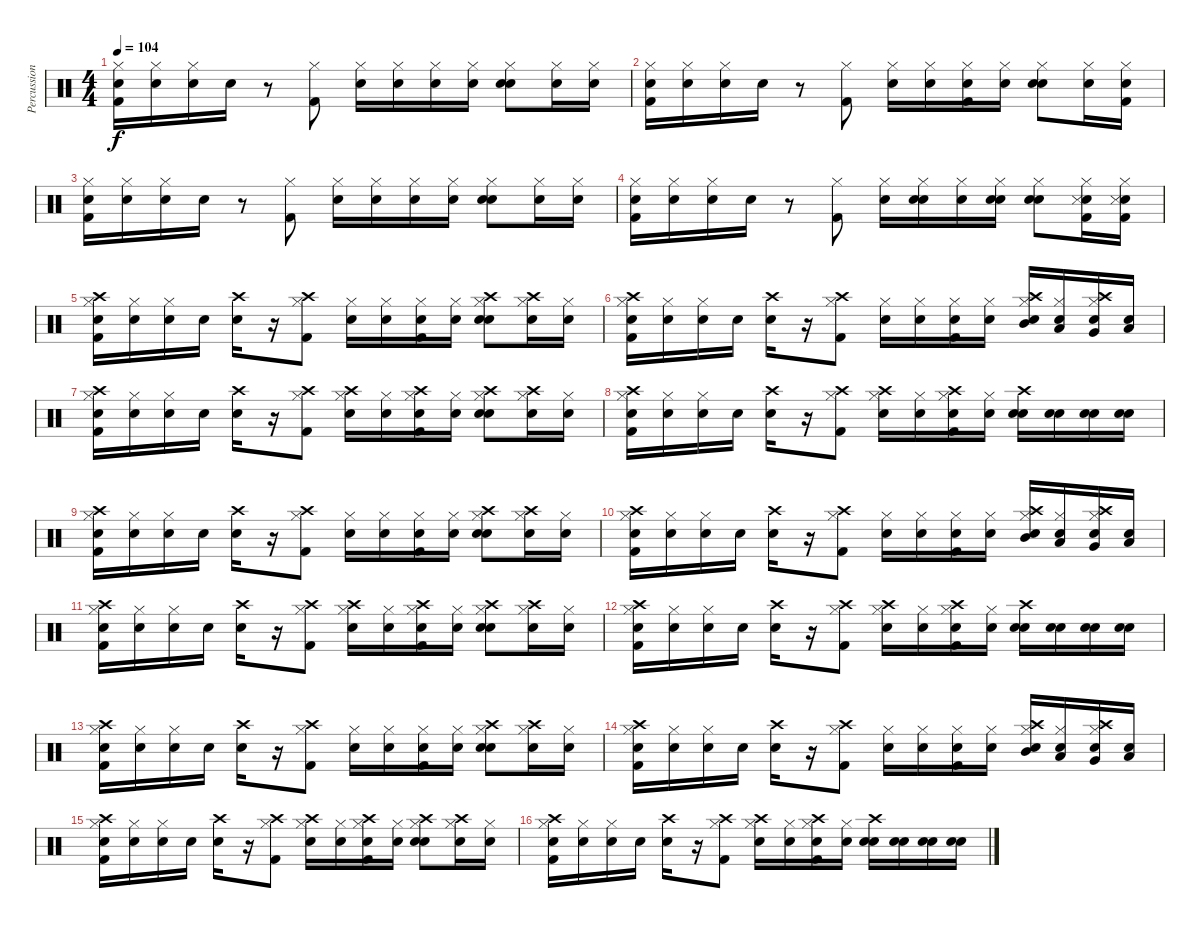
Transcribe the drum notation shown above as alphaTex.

\track ("Percussion" "Percussion") {instrument percussion}
\staff {score}
\articulation defaults
\ts (4 4)
\tempo 104
\clef neutral
\ks c
("Snare (hit)" "Kick (hit) 2" "Hi-Hat (closed)").16{dy f} ("Snare (hit)" "Hi-Hat (closed)").16 ("Snare (hit)" "Hi-Hat (closed)").16 "Electric Snare (hit)".16 r.8 ("Hi-Hat (closed)" "Kick (hit) 2").8 ("Snare (hit)" "Hi-Hat (closed)").16 ("Snare (hit)" "Hi-Hat (closed)").16 ("Snare (hit)" "Hi-Hat (closed)").16 ("Snare (hit)" "Hi-Hat (closed)").16 ("Snare (hit)" "Hi-Hat (closed)" "Electric Snare (hit)").8 ("Snare (hit)" "Hi-Hat (closed)").16 ("Snare (hit)" "Hi-Hat (closed)").16 |
("Snare (hit)" "Hi-Hat (closed)" "Kick (hit) 2").16 ("Snare (hit)" "Hi-Hat (closed)").16 ("Snare (hit)" "Hi-Hat (closed)").16 "Electric Snare (hit)".16 r.8 ("Kick (hit) 2" "Hi-Hat (closed)").8 ("Snare (hit)" "Hi-Hat (closed)").16 ("Snare (hit)" "Hi-Hat (closed)").16 ("Snare (hit)" "Hi-Hat (closed)" "Kick (hit) 2").16 ("Snare (hit)" "Hi-Hat (closed)").16 ("Snare (hit)" "Electric Snare (hit)" "Hi-Hat (closed)").8 ("Snare (hit)" "Hi-Hat (closed)").16 ("Snare (hit)" "Kick (hit) 2" "Hi-Hat (closed)").16 |
("Snare (hit)" "Hi-Hat (closed)" "Kick (hit) 2").16 ("Snare (hit)" "Hi-Hat (closed)").16 ("Snare (hit)" "Hi-Hat (closed)").16 "Electric Snare (hit)".16 r.8 ("Kick (hit) 2" "Hi-Hat (closed)").8 ("Snare (hit)" "Hi-Hat (closed)").16 ("Snare (hit)" "Hi-Hat (closed)").16 ("Snare (hit)" "Hi-Hat (closed)").16 ("Snare (hit)" "Hi-Hat (closed)").16 ("Snare (hit)" "Electric Snare (hit)" "Hi-Hat (closed)").8 ("Snare (hit)" "Hi-Hat (closed)").16 ("Snare (hit)" "Hi-Hat (closed)").16 |
("Snare (hit)" "Kick (hit) 2" "Hi-Hat (closed)").16 ("Snare (hit)" "Hi-Hat (closed)").16 ("Snare (hit)" "Hi-Hat (closed)").16 "Electric Snare (hit)".16 r.8 ("Hi-Hat (closed)" "Kick (hit) 2").8 ("Snare (hit)" "Hi-Hat (closed)").16 ("Snare (hit)" "Electric Snare (hit)" "Hi-Hat (closed)").16 ("Snare (hit)" "Hi-Hat (closed)").16 ("Snare (hit)" "Electric Snare (hit)" "Hi-Hat (closed)").16 ("Snare (hit)" "Hi-Hat (closed)" "Electric Snare (hit)").8 ("Snare (hit)" "Metronome (hit)" "Kick (hit) 2" "Hi-Hat (closed)").16 ("Snare (hit)" "Metronome (hit)" "Hi-Hat (closed)" "Kick (hit) 2").16 |
("Snare (hit)" "Crash high (hit)" "Hi-Hat (closed)" "Kick (hit) 2").16 ("Snare (hit)" "Hi-Hat (closed)").16 ("Snare (hit)" "Hi-Hat (closed)").16 "Electric Snare (hit)".16 ("Snare (hit)" "Crash high (hit)").16 r.16 ("Hi-Hat (closed)" "Crash high (hit)" "Kick (hit) 2").8 ("Snare (hit)" "Hi-Hat (closed)").16 ("Snare (hit)" "Hi-Hat (closed)").16 ("Snare (hit)" "Kick (hit) 2" "Hi-Hat (closed)").16 ("Snare (hit)" "Hi-Hat (closed)").16 ("Snare (hit)" "Crash high (hit)" "Electric Snare (hit)" "Hi-Hat (closed)").8 ("Snare (hit)" "Crash high (hit)" "Hi-Hat (closed)").16 ("Snare (hit)" "Hi-Hat (closed)").16 |
("Snare (hit)" "Crash high (hit)" "Kick (hit) 2" "Hi-Hat (closed)").16 ("Snare (hit)" "Hi-Hat (closed)").16 ("Snare (hit)" "Hi-Hat (closed)").16 "Electric Snare (hit)".16 ("Snare (hit)" "Crash high (hit)").16 r.16 ("Crash high (hit)" "Hi-Hat (closed)" "Kick (hit) 2").8 ("Snare (hit)" "Hi-Hat (closed)").16 ("Snare (hit)" "Hi-Hat (closed)").16 ("Snare (hit)" "Hi-Hat (closed)" "Kick (hit) 2").16 ("Snare (hit)" "Hi-Hat (closed)").16 ("Snare (hit)" "Crash high (hit)" "Hi-Hat (closed)" "Mid Tom (hit)").16 ("Snare (hit)" "Low Tom (hit)" "Hi-Hat (closed)").16 ("Snare (hit)" "Crash high (hit)" "Very Low Tom (hit)" "Hi-Hat (closed)").16 ("Snare (hit)" "Low Floor Tom (hit)").16 |
("Snare (hit)" "Crash high (hit)" "Kick (hit) 2" "Hi-Hat (closed)").16 ("Snare (hit)" "Hi-Hat (closed)").16 ("Snare (hit)" "Hi-Hat (closed)").16 "Electric Snare (hit)".16 ("Snare (hit)" "Crash high (hit)").16 r.16 ("Kick (hit) 2" "Crash high (hit)" "Hi-Hat (closed)").8 ("Snare (hit)" "Crash high (hit)" "Hi-Hat (closed)").16 ("Snare (hit)" "Hi-Hat (closed)").16 ("Snare (hit)" "Crash high (hit)" "Hi-Hat (closed)" "Kick (hit) 2").16 ("Snare (hit)" "Hi-Hat (closed)").16 ("Snare (hit)" "Crash high (hit)" "Hi-Hat (closed)" "Electric Snare (hit)").8 ("Snare (hit)" "Crash high (hit)" "Hi-Hat (closed)").16 ("Snare (hit)" "Hi-Hat (closed)").16 |
("Snare (hit)" "Crash high (hit)" "Kick (hit) 2" "Hi-Hat (closed)").16 ("Snare (hit)" "Hi-Hat (closed)").16 ("Snare (hit)" "Hi-Hat (closed)").16 "Electric Snare (hit)".16 ("Snare (hit)" "Crash high (hit)").16 r.16 ("Crash high (hit)" "Hi-Hat (closed)" "Kick (hit) 2").8 ("Snare (hit)" "Crash high (hit)" "Hi-Hat (closed)").16 ("Snare (hit)" "Hi-Hat (closed)").16 ("Snare (hit)" "Kick (hit) 2" "Hi-Hat (closed)" "Crash high (hit)").16 ("Snare (hit)" "Hi-Hat (closed)").16 ("Snare (hit)" "Crash high (hit)" "Electric Snare (hit)").16 ("Snare (hit)" "Electric Snare (hit)").16 ("Snare (hit)" "Electric Snare (hit)").16 ("Snare (hit)" "Electric Snare (hit)").16 |
("Snare (hit)" "Kick (hit) 2" "Hi-Hat (closed)" "Crash high (hit)").16 ("Snare (hit)" "Hi-Hat (closed)").16 ("Snare (hit)" "Hi-Hat (closed)").16 "Electric Snare (hit)".16 ("Snare (hit)" "Crash high (hit)").16 r.16 ("Hi-Hat (closed)" "Kick (hit) 2" "Crash high (hit)").8 ("Snare (hit)" "Hi-Hat (closed)").16 ("Snare (hit)" "Hi-Hat (closed)").16 ("Snare (hit)" "Hi-Hat (closed)" "Kick (hit) 2").16 ("Snare (hit)" "Hi-Hat (closed)").16 ("Snare (hit)" "Hi-Hat (closed)" "Electric Snare (hit)" "Crash high (hit)").8 ("Snare (hit)" "Hi-Hat (closed)" "Crash high (hit)").16 ("Snare (hit)" "Hi-Hat (closed)").16 |
("Snare (hit)" "Hi-Hat (closed)" "Kick (hit) 2" "Crash high (hit)").16 ("Snare (hit)" "Hi-Hat (closed)").16 ("Snare (hit)" "Hi-Hat (closed)").16 "Electric Snare (hit)".16 ("Snare (hit)" "Crash high (hit)").16 r.16 ("Kick (hit) 2" "Hi-Hat (closed)" "Crash high (hit)").8 ("Snare (hit)" "Hi-Hat (closed)").16 ("Snare (hit)" "Hi-Hat (closed)").16 ("Snare (hit)" "Kick (hit) 2" "Hi-Hat (closed)").16 ("Snare (hit)" "Hi-Hat (closed)").16 ("Snare (hit)" "Mid Tom (hit)" "Hi-Hat (closed)" "Crash high (hit)").16 ("Snare (hit)" "Hi-Hat (closed)" "Low Tom (hit)").16 ("Snare (hit)" "Hi-Hat (closed)" "Very Low Tom (hit)" "Crash high (hit)").16 ("Snare (hit)" "Low Floor Tom (hit)").16 |
("Snare (hit)" "Hi-Hat (closed)" "Kick (hit) 2" "Crash high (hit)").16 ("Snare (hit)" "Hi-Hat (closed)").16 ("Snare (hit)" "Hi-Hat (closed)").16 "Electric Snare (hit)".16 ("Snare (hit)" "Crash high (hit)").16 r.16 ("Kick (hit) 2" "Hi-Hat (closed)" "Crash high (hit)").8 ("Snare (hit)" "Hi-Hat (closed)" "Crash high (hit)").16 ("Snare (hit)" "Hi-Hat (closed)").16 ("Snare (hit)" "Kick (hit) 2" "Hi-Hat (closed)" "Crash high (hit)").16 ("Snare (hit)" "Hi-Hat (closed)").16 ("Snare (hit)" "Electric Snare (hit)" "Hi-Hat (closed)" "Crash high (hit)").8 ("Snare (hit)" "Hi-Hat (closed)" "Crash high (hit)").16 ("Snare (hit)" "Hi-Hat (closed)").16 |
("Snare (hit)" "Hi-Hat (closed)" "Kick (hit) 2" "Crash high (hit)").16 ("Snare (hit)" "Hi-Hat (closed)").16 ("Snare (hit)" "Hi-Hat (closed)").16 "Electric Snare (hit)".16 ("Snare (hit)" "Crash high (hit)").16 r.16 ("Kick (hit) 2" "Hi-Hat (closed)" "Crash high (hit)").8 ("Snare (hit)" "Hi-Hat (closed)" "Crash high (hit)").16 ("Snare (hit)" "Hi-Hat (closed)").16 ("Snare (hit)" "Kick (hit) 2" "Hi-Hat (closed)" "Crash high (hit)").16 ("Snare (hit)" "Hi-Hat (closed)").16 ("Snare (hit)" "Electric Snare (hit)" "Crash high (hit)").16 ("Snare (hit)" "Electric Snare (hit)").16 ("Snare (hit)" "Electric Snare (hit)").16 ("Snare (hit)" "Electric Snare (hit)").16 |
("Snare (hit)" "Kick (hit) 2" "Hi-Hat (closed)" "Crash high (hit)").16 ("Snare (hit)" "Hi-Hat (closed)").16 ("Snare (hit)" "Hi-Hat (closed)").16 "Electric Snare (hit)".16 ("Snare (hit)" "Crash high (hit)").16 r.16 ("Hi-Hat (closed)" "Kick (hit) 2" "Crash high (hit)").8 ("Snare (hit)" "Hi-Hat (closed)").16 ("Snare (hit)" "Hi-Hat (closed)").16 ("Snare (hit)" "Hi-Hat (closed)" "Kick (hit) 2").16 ("Snare (hit)" "Hi-Hat (closed)").16 ("Snare (hit)" "Hi-Hat (closed)" "Electric Snare (hit)" "Crash high (hit)").8 ("Snare (hit)" "Hi-Hat (closed)" "Crash high (hit)").16 ("Snare (hit)" "Hi-Hat (closed)").16 |
("Snare (hit)" "Hi-Hat (closed)" "Kick (hit) 2" "Crash high (hit)").16 ("Snare (hit)" "Hi-Hat (closed)").16 ("Snare (hit)" "Hi-Hat (closed)").16 "Electric Snare (hit)".16 ("Snare (hit)" "Crash high (hit)").16 r.16 ("Kick (hit) 2" "Hi-Hat (closed)" "Crash high (hit)").8 ("Snare (hit)" "Hi-Hat (closed)").16 ("Snare (hit)" "Hi-Hat (closed)").16 ("Snare (hit)" "Kick (hit) 2" "Hi-Hat (closed)").16 ("Snare (hit)" "Hi-Hat (closed)").16 ("Snare (hit)" "Mid Tom (hit)" "Hi-Hat (closed)" "Crash high (hit)").16 ("Snare (hit)" "Hi-Hat (closed)" "Low Tom (hit)").16 ("Snare (hit)" "Hi-Hat (closed)" "Very Low Tom (hit)" "Crash high (hit)").16 ("Snare (hit)" "Low Floor Tom (hit)").16 |
("Snare (hit)" "Hi-Hat (closed)" "Kick (hit) 2" "Crash high (hit)").16 ("Snare (hit)" "Hi-Hat (closed)").16 ("Snare (hit)" "Hi-Hat (closed)").16 "Electric Snare (hit)".16 ("Snare (hit)" "Crash high (hit)").16 r.16 ("Kick (hit) 2" "Hi-Hat (closed)" "Crash high (hit)").8 ("Snare (hit)" "Hi-Hat (closed)" "Crash high (hit)").16 ("Snare (hit)" "Hi-Hat (closed)").16 ("Snare (hit)" "Kick (hit) 2" "Hi-Hat (closed)" "Crash high (hit)").16 ("Snare (hit)" "Hi-Hat (closed)").16 ("Snare (hit)" "Electric Snare (hit)" "Hi-Hat (closed)" "Crash high (hit)").8 ("Snare (hit)" "Hi-Hat (closed)" "Crash high (hit)").16 ("Snare (hit)" "Hi-Hat (closed)").16 |
("Snare (hit)" "Hi-Hat (closed)" "Kick (hit) 2" "Crash high (hit)").16 ("Snare (hit)" "Hi-Hat (closed)").16 ("Snare (hit)" "Hi-Hat (closed)").16 "Electric Snare (hit)".16 ("Snare (hit)" "Crash high (hit)").16 r.16 ("Kick (hit) 2" "Hi-Hat (closed)" "Crash high (hit)").8 ("Snare (hit)" "Hi-Hat (closed)" "Crash high (hit)").16 ("Snare (hit)" "Hi-Hat (closed)").16 ("Snare (hit)" "Crash high (hit)" "Kick (hit) 2" "Hi-Hat (closed)").16 ("Snare (hit)" "Hi-Hat (closed)").16 ("Snare (hit)" "Electric Snare (hit)" "Crash high (hit)").16 ("Snare (hit)" "Electric Snare (hit)").16 ("Snare (hit)" "Electric Snare (hit)").16 ("Snare (hit)" "Electric Snare (hit)").16
